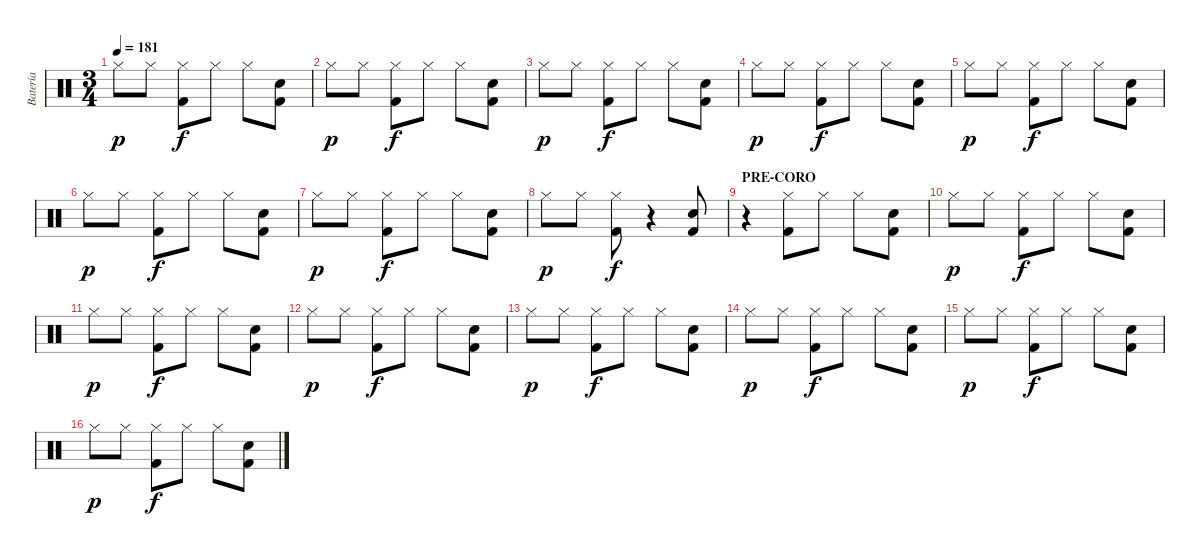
\track ("Batería" "Batería") {instrument percussion}
\staff {score}
\articulation defaults
\ts (3 4)
\tempo 181
\clef neutral
\ks c "Hi-Hat (closed)".8{dy p} "Hi-Hat (closed)".8
("Hi-Hat (closed)" "Kick (hit) 2").8{dy f} "Hi-Hat (closed)".8 "Hi-Hat (closed)".8 ("Electric Snare (hit)" "Kick (hit) 2").8 |
"Hi-Hat (closed)".8{dy p} "Hi-Hat (closed)".8 ("Hi-Hat (closed)" "Kick (hit) 2").8{dy f} "Hi-Hat (closed)".8 "Hi-Hat (closed)".8 ("Electric Snare (hit)" "Kick (hit) 2").8 |
"Hi-Hat (closed)".8{dy p} "Hi-Hat (closed)".8 ("Hi-Hat (closed)" "Kick (hit) 2").8{dy f} "Hi-Hat (closed)".8 "Hi-Hat (closed)".8 ("Electric Snare (hit)" "Kick (hit) 2").8 |
"Hi-Hat (closed)".8{dy p} "Hi-Hat (closed)".8 ("Hi-Hat (closed)" "Kick (hit) 2").8{dy f} "Hi-Hat (closed)".8 "Hi-Hat (closed)".8 ("Electric Snare (hit)" "Kick (hit) 2").8 |
"Hi-Hat (closed)".8{dy p} "Hi-Hat (closed)".8 ("Hi-Hat (closed)" "Kick (hit) 2").8{dy f} "Hi-Hat (closed)".8 "Hi-Hat (closed)".8 ("Electric Snare (hit)" "Kick (hit) 2").8 |
"Hi-Hat (closed)".8{dy p} "Hi-Hat (closed)".8 ("Hi-Hat (closed)" "Kick (hit) 2").8{dy f} "Hi-Hat (closed)".8 "Hi-Hat (closed)".8 ("Electric Snare (hit)" "Kick (hit) 2").8 |
"Hi-Hat (closed)".8{dy p} "Hi-Hat (closed)".8 ("Hi-Hat (closed)" "Kick (hit) 2").8{dy f} "Hi-Hat (closed)".8 "Hi-Hat (closed)".8 ("Electric Snare (hit)" "Kick (hit) 2").8 |
"Hi-Hat (closed)".8{dy p} "Hi-Hat (closed)".8 ("Hi-Hat (closed)" "Kick (hit) 2").8{dy f} r.4 ("Electric Snare (hit)" "Kick (hit) 2").8 |
\section ("" "PRE-CORO")
r.4 ("Hi-Hat (closed)" "Kick (hit) 2").8 "Hi-Hat (closed)".8 "Hi-Hat (closed)".8 ("Electric Snare (hit)" "Kick (hit) 2").8 |
"Hi-Hat (closed)".8{dy p} "Hi-Hat (closed)".8 ("Hi-Hat (closed)" "Kick (hit) 2").8{dy f} "Hi-Hat (closed)".8 "Hi-Hat (closed)".8 ("Electric Snare (hit)" "Kick (hit) 2").8 |
"Hi-Hat (closed)".8{dy p} "Hi-Hat (closed)".8 ("Hi-Hat (closed)" "Kick (hit) 2").8{dy f} "Hi-Hat (closed)".8 "Hi-Hat (closed)".8 ("Electric Snare (hit)" "Kick (hit) 2").8 |
"Hi-Hat (closed)".8{dy p} "Hi-Hat (closed)".8 ("Hi-Hat (closed)" "Kick (hit) 2").8{dy f} "Hi-Hat (closed)".8 "Hi-Hat (closed)".8 ("Electric Snare (hit)" "Kick (hit) 2").8 |
"Hi-Hat (closed)".8{dy p} "Hi-Hat (closed)".8 ("Hi-Hat (closed)" "Kick (hit) 2").8{dy f} "Hi-Hat (closed)".8 "Hi-Hat (closed)".8 ("Electric Snare (hit)" "Kick (hit) 2").8 |
"Hi-Hat (closed)".8{dy p} "Hi-Hat (closed)".8 ("Hi-Hat (closed)" "Kick (hit) 2").8{dy f} "Hi-Hat (closed)".8 "Hi-Hat (closed)".8 ("Electric Snare (hit)" "Kick (hit) 2").8 |
"Hi-Hat (closed)".8{dy p} "Hi-Hat (closed)".8 ("Hi-Hat (closed)" "Kick (hit) 2").8{dy f} "Hi-Hat (closed)".8 "Hi-Hat (closed)".8 ("Electric Snare (hit)" "Kick (hit) 2").8 |
"Hi-Hat (closed)".8{dy p} "Hi-Hat (closed)".8 ("Hi-Hat (closed)" "Kick (hit) 2").8{dy f} "Hi-Hat (closed)".8 "Hi-Hat (closed)".8 ("Electric Snare (hit)" "Kick (hit) 2").8
